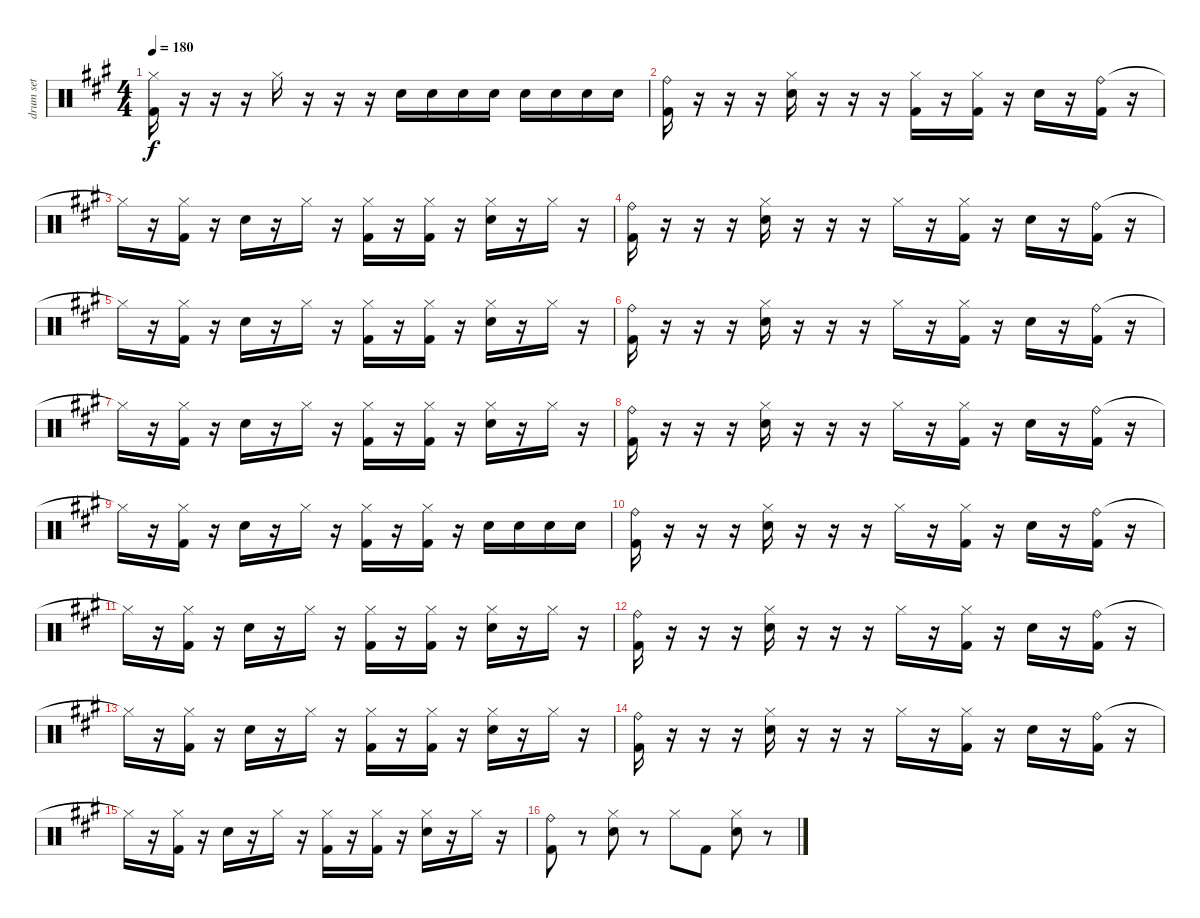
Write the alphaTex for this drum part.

\track ("drum set" "drum set") {instrument percussion}
\staff {score}
\articulation defaults
\ts (4 4)
\tempo 180
\clef neutral
\ks a
("Hi-Hat (closed)" "Kick (hit) 2").16{dy f} r.16 r.16 r.16 "Hi-Hat (closed)".16 r.16 r.16 r.16 "Snare (hit) 2".16 "Snare (hit) 2".16 "Snare (hit) 2".16 "Snare (hit) 2".16 "Snare (hit) 2".16 "Snare (hit) 2".16 "Snare (hit) 2".16 "Snare (hit) 2".16 |
("Ride (bell)" "Kick (hit) 2").16 r.16 r.16 r.16 ("Hi-Hat (closed)" "Snare (hit) 2").16 r.16 r.16 r.16 ("Hi-Hat (closed)" "Kick (hit) 2").16 r.16 ("Hi-Hat (closed)" "Kick (hit) 2").16 r.16 "Snare (hit) 2".16 r.16 ("Ride (bell)" "Kick (hit) 2").16 r.16 |
"Hi-Hat (closed)"{t}.16 r.16 ("Hi-Hat (closed)" "Kick (hit) 2").16 r.16 "Snare (hit) 2".16 r.16 "Hi-Hat (closed)".16 r.16 ("Hi-Hat (closed)" "Kick (hit) 2").16 r.16 ("Hi-Hat (closed)" "Kick (hit) 2").16 r.16 ("Hi-Hat (closed)" "Snare (hit) 2").16 r.16 "Hi-Hat (closed)".16 r.16 |
("Ride (bell)" "Kick (hit) 2").16 r.16 r.16 r.16 ("Hi-Hat (closed)" "Snare (hit) 2").16 r.16 r.16 r.16 "Hi-Hat (closed)".16 r.16 ("Hi-Hat (closed)" "Kick (hit) 2").16 r.16 "Snare (hit) 2".16 r.16 ("Ride (bell)" "Kick (hit) 2").16 r.16 |
"Hi-Hat (closed)"{t}.16 r.16 ("Hi-Hat (closed)" "Kick (hit) 2").16 r.16 "Snare (hit) 2".16 r.16 "Hi-Hat (closed)".16 r.16 ("Hi-Hat (closed)" "Kick (hit) 2").16 r.16 ("Hi-Hat (closed)" "Kick (hit) 2").16 r.16 ("Hi-Hat (closed)" "Snare (hit) 2").16 r.16 "Hi-Hat (closed)".16 r.16 |
("Ride (bell)" "Kick (hit) 2").16 r.16 r.16 r.16 ("Hi-Hat (closed)" "Snare (hit) 2").16 r.16 r.16 r.16 "Hi-Hat (closed)".16 r.16 ("Hi-Hat (closed)" "Kick (hit) 2").16 r.16 "Snare (hit) 2".16 r.16 ("Ride (bell)" "Kick (hit) 2").16 r.16 |
"Hi-Hat (closed)"{t}.16 r.16 ("Hi-Hat (closed)" "Kick (hit) 2").16 r.16 "Snare (hit) 2".16 r.16 "Hi-Hat (closed)".16 r.16 ("Hi-Hat (closed)" "Kick (hit) 2").16 r.16 ("Hi-Hat (closed)" "Kick (hit) 2").16 r.16 ("Hi-Hat (closed)" "Snare (hit) 2").16 r.16 "Hi-Hat (closed)".16 r.16 |
("Ride (bell)" "Kick (hit) 2").16 r.16 r.16 r.16 ("Hi-Hat (closed)" "Snare (hit) 2").16 r.16 r.16 r.16 "Hi-Hat (closed)".16 r.16 ("Hi-Hat (closed)" "Kick (hit) 2").16 r.16 "Snare (hit) 2".16 r.16 ("Ride (bell)" "Kick (hit) 2").16 r.16 |
"Hi-Hat (closed)"{t}.16 r.16 ("Hi-Hat (closed)" "Kick (hit) 2").16 r.16 "Snare (hit) 2".16 r.16 "Hi-Hat (closed)".16 r.16 ("Hi-Hat (closed)" "Kick (hit) 2").16 r.16 ("Hi-Hat (closed)" "Kick (hit) 2").16 r.16 "Snare (hit) 2".16 "Snare (hit) 2".16 "Snare (hit) 2".16 "Snare (hit) 2".16 |
("Ride (bell)" "Kick (hit) 2").16 r.16 r.16 r.16 ("Hi-Hat (closed)" "Snare (hit) 2").16 r.16 r.16 r.16 "Hi-Hat (closed)".16 r.16 ("Hi-Hat (closed)" "Kick (hit) 2").16 r.16 "Snare (hit) 2".16 r.16 ("Ride (bell)" "Kick (hit) 2").16 r.16 |
"Hi-Hat (closed)"{t}.16 r.16 ("Hi-Hat (closed)" "Kick (hit) 2").16 r.16 "Snare (hit) 2".16 r.16 "Hi-Hat (closed)".16 r.16 ("Hi-Hat (closed)" "Kick (hit) 2").16 r.16 ("Hi-Hat (closed)" "Kick (hit) 2").16 r.16 ("Hi-Hat (closed)" "Snare (hit) 2").16 r.16 "Hi-Hat (closed)".16 r.16 |
("Ride (bell)" "Kick (hit) 2").16 r.16 r.16 r.16 ("Hi-Hat (closed)" "Snare (hit) 2").16 r.16 r.16 r.16 "Hi-Hat (closed)".16 r.16 ("Hi-Hat (closed)" "Kick (hit) 2").16 r.16 "Snare (hit) 2".16 r.16 ("Ride (bell)" "Kick (hit) 2").16 r.16 |
"Hi-Hat (closed)"{t}.16 r.16 ("Hi-Hat (closed)" "Kick (hit) 2").16 r.16 "Snare (hit) 2".16 r.16 "Hi-Hat (closed)".16 r.16 ("Hi-Hat (closed)" "Kick (hit) 2").16 r.16 ("Hi-Hat (closed)" "Kick (hit) 2").16 r.16 ("Hi-Hat (closed)" "Snare (hit) 2").16 r.16 "Hi-Hat (closed)".16 r.16 |
("Ride (bell)" "Kick (hit) 2").16 r.16 r.16 r.16 ("Hi-Hat (closed)" "Snare (hit) 2").16 r.16 r.16 r.16 "Hi-Hat (closed)".16 r.16 ("Hi-Hat (closed)" "Kick (hit) 2").16 r.16 "Snare (hit) 2".16 r.16 ("Ride (bell)" "Kick (hit) 2").16 r.16 |
"Hi-Hat (closed)"{t}.16 r.16 ("Hi-Hat (closed)" "Kick (hit) 2").16 r.16 "Snare (hit) 2".16 r.16 "Hi-Hat (closed)".16 r.16 ("Hi-Hat (closed)" "Kick (hit) 2").16 r.16 ("Hi-Hat (closed)" "Kick (hit) 2").16 r.16 ("Hi-Hat (closed)" "Snare (hit) 2").16 r.16 "Hi-Hat (closed)".16 r.16 |
("Ride (bell)" "Kick (hit) 2").8 r.8 ("Hi-Hat (closed)" "Snare (hit) 2").8 r.8 "Hi-Hat (closed)".8 "Kick (hit) 2".8 ("Hi-Hat (closed)" "Snare (hit) 2").8 r.8
